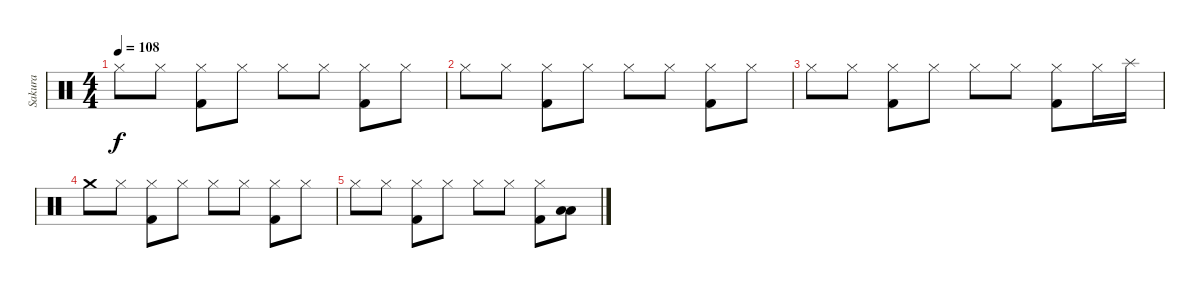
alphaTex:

\track ("Sakura" "Sakura") {instrument percussion}
\staff {score}
\articulation defaults
\ts (4 4)
\tempo 108
\clef neutral
\ks c "Hi-Hat (closed)".8{dy f} "Hi-Hat (closed)".8
("Hi-Hat (closed)" "Kick (hit) 2").8 "Hi-Hat (closed)".8 "Hi-Hat (closed)".8 "Hi-Hat (closed)".8 ("Hi-Hat (closed)" "Kick (hit) 2").8 "Hi-Hat (closed)".8 |
"Hi-Hat (closed)".8 "Hi-Hat (closed)".8 ("Hi-Hat (closed)" "Kick (hit) 2").8 "Hi-Hat (closed)".8 "Hi-Hat (closed)".8 "Hi-Hat (closed)".8 ("Hi-Hat (closed)" "Kick (hit) 2").8 "Hi-Hat (closed)".8 |
"Hi-Hat (closed)".8 "Hi-Hat (closed)".8 ("Hi-Hat (closed)" "Kick (hit) 2").8 "Hi-Hat (closed)".8 "Hi-Hat (closed)".8 "Hi-Hat (closed)".8 ("Hi-Hat (closed)" "Kick (hit) 2").8 "Hi-Hat (closed)".16 "Splash (hit)".16 |
"Crash medium (hit)".8 "Hi-Hat (closed)".8 ("Hi-Hat (closed)" "Kick (hit) 2").8 "Hi-Hat (closed)".8 "Hi-Hat (closed)".8 "Hi-Hat (closed)".8 ("Hi-Hat (closed)" "Kick (hit) 2").8 "Hi-Hat (closed)".8 |
"Hi-Hat (closed)".8 "Hi-Hat (closed)".8 ("Hi-Hat (closed)" "Kick (hit) 2").8 "Hi-Hat (closed)".8 "Hi-Hat (closed)".8 "Hi-Hat (closed)".8 ("Hi-Hat (closed)" "Kick (hit) 2").8 ("Low Tom (hit)" "Low Floor Tom (hit)").8
